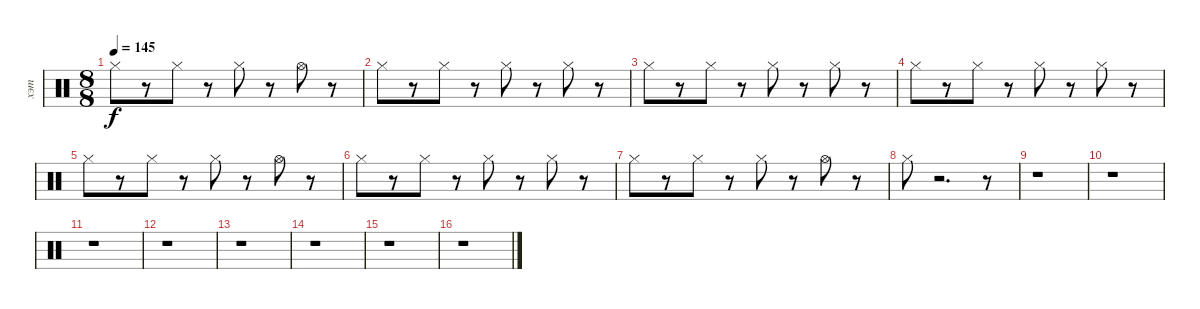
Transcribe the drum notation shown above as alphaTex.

\track ("хэт" "хэт") {instrument percussion}
\staff {score}
\articulation defaults
\ts (8 8)
\tempo 145
\clef neutral
\ks c "Hi-Hat (closed)".8{dy f}
r.8 "Hi-Hat (closed)".8 r.8 "Hi-Hat (closed)".8 r.8 "Hi-Hat (open)".8 r.8 |
"Hi-Hat (closed)".8 r.8 "Hi-Hat (closed)".8 r.8 "Hi-Hat (closed)".8 r.8 "Hi-Hat (closed)".8 r.8 |
"Hi-Hat (closed)".8 r.8 "Hi-Hat (closed)".8 r.8 "Hi-Hat (closed)".8 r.8 "Hi-Hat (closed)".8 r.8 |
"Hi-Hat (closed)".8 r.8 "Hi-Hat (closed)".8 r.8 "Hi-Hat (closed)".8 r.8 "Hi-Hat (closed)".8 r.8 |
"Hi-Hat (closed)".8 r.8 "Hi-Hat (closed)".8 r.8 "Hi-Hat (closed)".8 r.8 "Hi-Hat (open)".8 r.8 |
"Hi-Hat (closed)".8 r.8 "Hi-Hat (closed)".8 r.8 "Hi-Hat (closed)".8 r.8 "Hi-Hat (closed)".8 r.8 |
"Hi-Hat (closed)".8 r.8 "Hi-Hat (closed)".8 r.8 "Hi-Hat (closed)".8 r.8 "Hi-Hat (open)".8 r.8 |
"Hi-Hat (closed)".8 r.2{d} r.8 |
r.1 |
r.1 |
r.1 |
r.1 |
r.1 |
r.1 |
r.1 |
r.1
